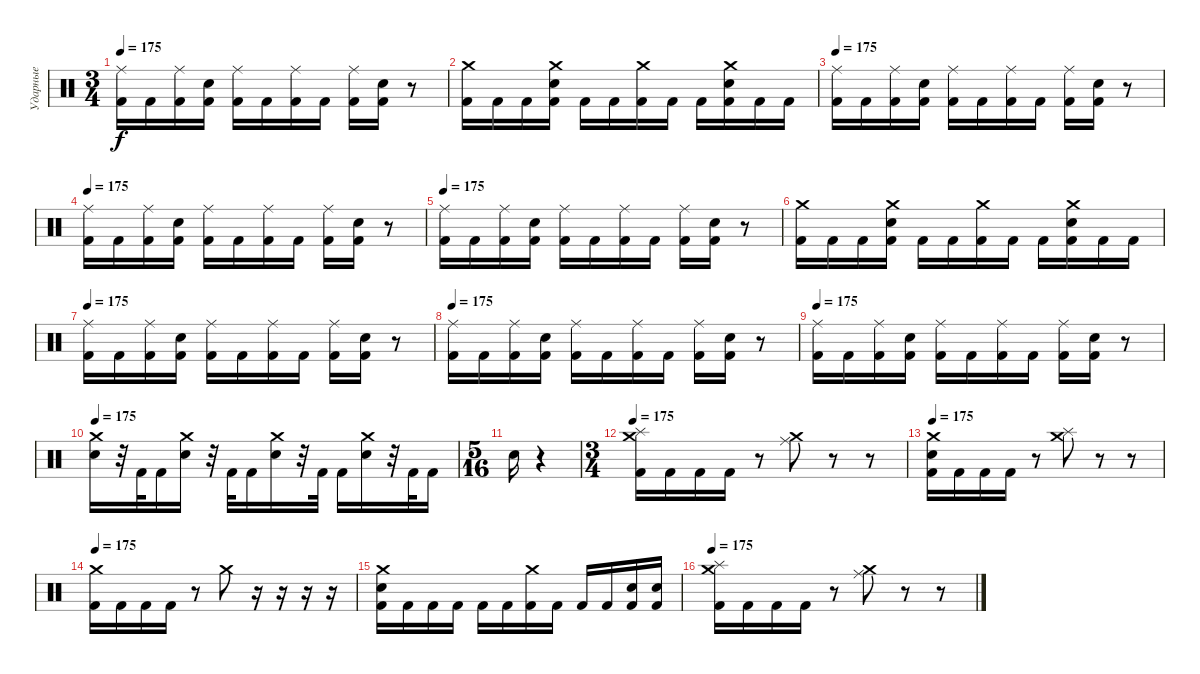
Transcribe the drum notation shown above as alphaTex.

\track ("Ударные" "Ударные") {instrument percussion}
\staff {score}
\articulation defaults
\ts (3 4)
\tempo 175
\clef neutral
\ks c
("Ride (middle)" "Kick (hit) 2").16{dy f} "Kick (hit) 2".16 ("Ride (middle)" "Kick (hit) 2").16 ("Electric Snare (hit)" "Kick (hit) 2").16 ("Ride (middle)" "Kick (hit) 2").16 "Kick (hit) 2".16 ("Ride (middle)" "Kick (hit) 2").16 "Kick (hit) 2".16 ("Ride (middle)" "Kick (hit) 2").16 ("Electric Snare (hit)" "Kick (hit) 2").16 r.8 |
("Crash medium (hit)" "Kick (hit) 2").16 "Kick (hit) 2".16 "Kick (hit) 2".16 ("Crash medium (hit)" "Electric Snare (hit)" "Kick (hit) 2").16 "Kick (hit) 2".16 "Kick (hit) 2".16 ("Crash medium (hit)" "Kick (hit) 2").16 "Kick (hit) 2".16 "Kick (hit) 2".16 ("Crash medium (hit)" "Electric Snare (hit)" "Kick (hit) 2").16 "Kick (hit) 2".16 "Kick (hit) 2".16 |
\tempo 175
("Ride (middle)" "Kick (hit) 2").16 "Kick (hit) 2".16 ("Ride (middle)" "Kick (hit) 2").16 ("Electric Snare (hit)" "Kick (hit) 2").16 ("Ride (middle)" "Kick (hit) 2").16 "Kick (hit) 2".16 ("Ride (middle)" "Kick (hit) 2").16 "Kick (hit) 2".16 ("Ride (middle)" "Kick (hit) 2").16 ("Electric Snare (hit)" "Kick (hit) 2").16 r.8 |
\tempo 175
("Ride (middle)" "Kick (hit) 2").16 "Kick (hit) 2".16 ("Ride (middle)" "Kick (hit) 2").16 ("Electric Snare (hit)" "Kick (hit) 2").16 ("Ride (middle)" "Kick (hit) 2").16 "Kick (hit) 2".16 ("Ride (middle)" "Kick (hit) 2").16 "Kick (hit) 2".16 ("Ride (middle)" "Kick (hit) 2").16 ("Electric Snare (hit)" "Kick (hit) 2").16 r.8 |
\tempo 175
("Ride (middle)" "Kick (hit) 2").16 "Kick (hit) 2".16 ("Ride (middle)" "Kick (hit) 2").16 ("Electric Snare (hit)" "Kick (hit) 2").16 ("Ride (middle)" "Kick (hit) 2").16 "Kick (hit) 2".16 ("Ride (middle)" "Kick (hit) 2").16 "Kick (hit) 2".16 ("Ride (middle)" "Kick (hit) 2").16 ("Electric Snare (hit)" "Kick (hit) 2").16 r.8 |
("Crash medium (hit)" "Kick (hit) 2").16 "Kick (hit) 2".16 "Kick (hit) 2".16 ("Crash medium (hit)" "Electric Snare (hit)" "Kick (hit) 2").16 "Kick (hit) 2".16 "Kick (hit) 2".16 ("Crash medium (hit)" "Kick (hit) 2").16 "Kick (hit) 2".16 "Kick (hit) 2".16 ("Crash medium (hit)" "Electric Snare (hit)" "Kick (hit) 2").16 "Kick (hit) 2".16 "Kick (hit) 2".16 |
\tempo 175
("Ride (middle)" "Kick (hit) 2").16 "Kick (hit) 2".16 ("Ride (middle)" "Kick (hit) 2").16 ("Electric Snare (hit)" "Kick (hit) 2").16 ("Ride (middle)" "Kick (hit) 2").16 "Kick (hit) 2".16 ("Ride (middle)" "Kick (hit) 2").16 "Kick (hit) 2".16 ("Ride (middle)" "Kick (hit) 2").16 ("Electric Snare (hit)" "Kick (hit) 2").16 r.8 |
\tempo 175
("Ride (middle)" "Kick (hit) 2").16 "Kick (hit) 2".16 ("Ride (middle)" "Kick (hit) 2").16 ("Electric Snare (hit)" "Kick (hit) 2").16 ("Ride (middle)" "Kick (hit) 2").16 "Kick (hit) 2".16 ("Ride (middle)" "Kick (hit) 2").16 "Kick (hit) 2".16 ("Ride (middle)" "Kick (hit) 2").16 ("Electric Snare (hit)" "Kick (hit) 2").16 r.8 |
\tempo 175
("Ride (middle)" "Kick (hit) 2").16 "Kick (hit) 2".16 ("Ride (middle)" "Kick (hit) 2").16 ("Electric Snare (hit)" "Kick (hit) 2").16 ("Ride (middle)" "Kick (hit) 2").16 "Kick (hit) 2".16 ("Ride (middle)" "Kick (hit) 2").16 "Kick (hit) 2".16 ("Ride (middle)" "Kick (hit) 2").16 ("Electric Snare (hit)" "Kick (hit) 2").16 r.8 |
\tempo 175
("Crash medium (hit)" "Electric Snare (hit)").16 r.32 "Kick (hit) 2".32 "Kick (hit) 2".16 ("Crash medium (hit)" "Electric Snare (hit)").16 r.32 "Kick (hit) 2".32 "Kick (hit) 2".16 ("Crash medium (hit)" "Electric Snare (hit)").16 r.32 "Kick (hit) 2".32 "Kick (hit) 2".16 ("Crash medium (hit)" "Electric Snare (hit)").16 r.32 "Kick (hit) 2".32 "Kick (hit) 2".16 |
\ts (5 16)
"Electric Snare (hit)".16 r.4 |
\ts (3 4)
\tempo 175
("Crash medium (hit)" "Splash (hit)" "Kick (hit) 2").16 "Kick (hit) 2".16 "Kick (hit) 2".16 "Kick (hit) 2".16 r.8 ("Crash medium (hit)" "Ride (middle)").8 r.8 r.8 |
\tempo 175
("Crash medium (hit)" "Electric Snare (hit)" "Kick (hit) 2").16 "Kick (hit) 2".16 "Kick (hit) 2".16 "Kick (hit) 2".16 r.8 ("Crash medium (hit)" "Splash (hit)").8 r.8 r.8 |
\tempo 175
("Crash medium (hit)" "Kick (hit) 2").16 "Kick (hit) 2".16 "Kick (hit) 2".16 "Kick (hit) 2".16 r.8 "Crash medium (hit)".8 r.16 r.16 r.16 r.16 |
("Crash medium (hit)" "Electric Snare (hit)" "Kick (hit) 2").16 "Kick (hit) 2".16 "Kick (hit) 2".16 "Kick (hit) 2".16 "Kick (hit) 2".16 "Kick (hit) 2".16 ("Crash medium (hit)" "Kick (hit) 2").16 "Kick (hit) 2".16 "Kick (hit) 2".16 "Kick (hit) 2".16 ("Electric Snare (hit)" "Kick (hit) 2").16 ("Electric Snare (hit)" "Kick (hit) 2").16 |
\tempo 175
("Crash medium (hit)" "Splash (hit)" "Kick (hit) 2").16 "Kick (hit) 2".16 "Kick (hit) 2".16 "Kick (hit) 2".16 r.8 ("Crash medium (hit)" "Ride (middle)").8 r.8 r.8
